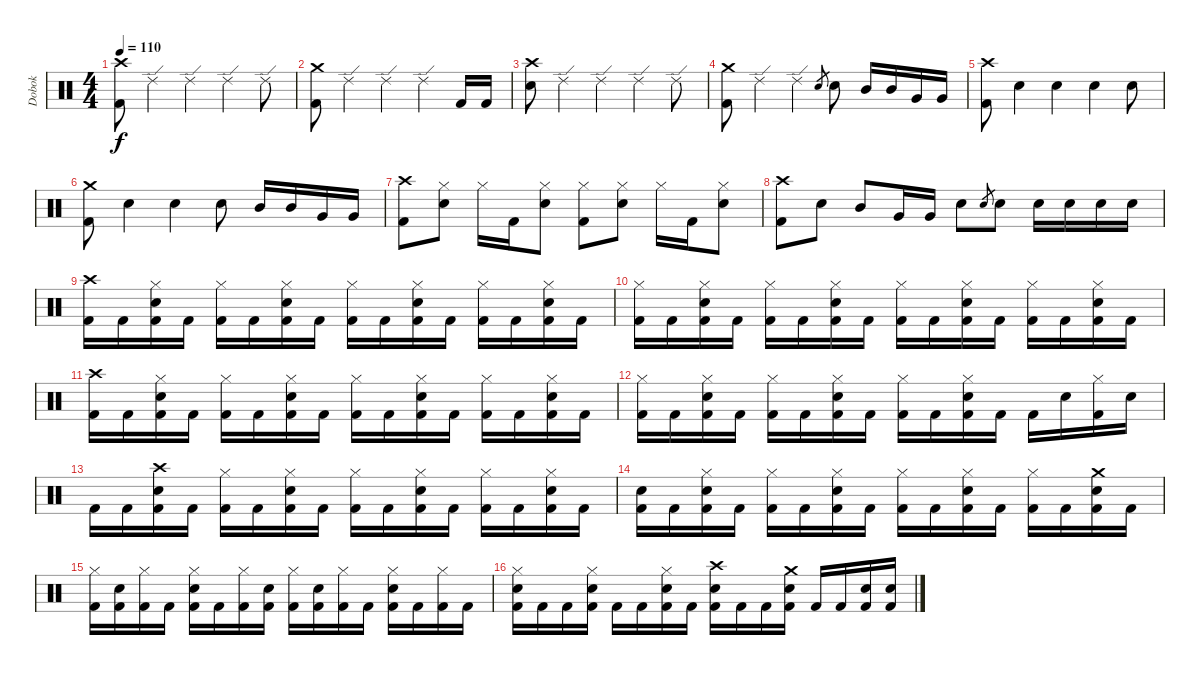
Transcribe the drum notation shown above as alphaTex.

\track ("Dobok" "Dobok") {instrument percussion}
\staff {score}
\articulation defaults
\ts (4 4)
\tempo 110
\clef neutral
\ks c
("Crash high (hit)" "Kick (hit) 2").8{dy f} "Ride (edge) 2".4 "Ride (edge) 2".4 "Ride (edge) 2".4 "Ride (edge) 2".8 |
("Crash medium (hit)" "Kick (hit) 2").8 "Ride (edge) 2".4 "Ride (edge) 2".4 "Ride (edge) 2".4 "Kick (hit) 2".16 "Kick (hit) 2".16 |
("Crash high (hit)" "Snare (hit) 2").8 "Ride (edge) 2".4 "Ride (edge) 2".4 "Ride (edge) 2".4 "Ride (edge) 2".8 |
("Crash medium (hit)" "Kick (hit) 2").8 "Ride (edge) 2".4 "Ride (edge) 2".4 "Snare (hit) 2".8{gr} "Snare (hit) 2".8 "Mid Tom (hit)".16 "Mid Tom (hit)".16 "Very Low Tom (hit)".16 "Very Low Tom (hit)".16 |
("Crash high (hit)" "Kick (hit) 2").8 "Snare (hit) 2".4 "Snare (hit) 2".4 "Snare (hit) 2".4 "Snare (hit) 2".8 |
("Crash medium (hit)" "Kick (hit) 2").8 "Snare (hit) 2".4 "Snare (hit) 2".4 "Snare (hit) 2".8 "Mid Tom (hit)".16 "Mid Tom (hit)".16 "Very Low Tom (hit)".16 "Very Low Tom (hit)".16 |
("Crash high (hit)" "Kick (hit) 2").8 ("Hi-Hat (closed)" "Snare (hit) 2").8 "Hi-Hat (closed)".16 "Kick (hit) 2".16 ("Hi-Hat (closed)" "Snare (hit) 2").8 ("Hi-Hat (closed)" "Kick (hit) 2").8 ("Hi-Hat (closed)" "Snare (hit) 2").8 "Hi-Hat (closed)".16 "Kick (hit) 2".16 ("Hi-Hat (closed)" "Snare (hit) 2").8 |
("Crash high (hit)" "Kick (hit) 2").8 "Snare (hit) 2".8 "Mid Tom (hit)".8 "Very Low Tom (hit)".16 "Very Low Tom (hit)".16 "Snare (hit) 2".8 "Snare (hit) 2".8{gr} "Snare (hit) 2".8 "Snare (hit) 2".16 "Snare (hit) 2".16 "Snare (hit) 2".16 "Snare (hit) 2".16 |
("Crash high (hit)" "Kick (hit) 2").16 "Kick (hit) 2".16 ("Hi-Hat (closed)" "Snare (hit) 2" "Kick (hit) 2").16 "Kick (hit) 2".16 ("Hi-Hat (closed)" "Kick (hit) 2").16 "Kick (hit) 2".16 ("Hi-Hat (closed)" "Snare (hit) 2" "Kick (hit) 2").16 "Kick (hit) 2".16 ("Hi-Hat (closed)" "Kick (hit) 2").16 "Kick (hit) 2".16 ("Hi-Hat (closed)" "Snare (hit) 2" "Kick (hit) 2").16 "Kick (hit) 2".16 ("Hi-Hat (closed)" "Kick (hit) 2").16 "Kick (hit) 2".16 ("Hi-Hat (closed)" "Snare (hit) 2" "Kick (hit) 2").16 "Kick (hit) 2".16 |
("Hi-Hat (closed)" "Kick (hit) 2").16 "Kick (hit) 2".16 ("Hi-Hat (closed)" "Snare (hit) 2" "Kick (hit) 2").16 "Kick (hit) 2".16 ("Hi-Hat (closed)" "Kick (hit) 2").16 "Kick (hit) 2".16 ("Hi-Hat (closed)" "Snare (hit) 2" "Kick (hit) 2").16 "Kick (hit) 2".16 ("Hi-Hat (closed)" "Kick (hit) 2").16 "Kick (hit) 2".16 ("Hi-Hat (closed)" "Snare (hit) 2" "Kick (hit) 2").16 "Kick (hit) 2".16 ("Hi-Hat (closed)" "Kick (hit) 2").16 "Kick (hit) 2".16 ("Hi-Hat (closed)" "Snare (hit) 2" "Kick (hit) 2").16 "Kick (hit) 2".16 |
("Crash high (hit)" "Kick (hit) 2").16 "Kick (hit) 2".16 ("Hi-Hat (closed)" "Snare (hit) 2" "Kick (hit) 2").16 "Kick (hit) 2".16 ("Hi-Hat (closed)" "Kick (hit) 2").16 "Kick (hit) 2".16 ("Hi-Hat (closed)" "Snare (hit) 2" "Kick (hit) 2").16 "Kick (hit) 2".16 ("Hi-Hat (closed)" "Kick (hit) 2").16 "Kick (hit) 2".16 ("Hi-Hat (closed)" "Snare (hit) 2" "Kick (hit) 2").16 "Kick (hit) 2".16 ("Hi-Hat (closed)" "Kick (hit) 2").16 "Kick (hit) 2".16 ("Hi-Hat (closed)" "Snare (hit) 2" "Kick (hit) 2").16 "Kick (hit) 2".16 |
("Hi-Hat (closed)" "Kick (hit) 2").16 "Kick (hit) 2".16 ("Hi-Hat (closed)" "Snare (hit) 2" "Kick (hit) 2").16 "Kick (hit) 2".16 ("Hi-Hat (closed)" "Kick (hit) 2").16 "Kick (hit) 2".16 ("Hi-Hat (closed)" "Snare (hit) 2" "Kick (hit) 2").16 "Kick (hit) 2".16 ("Hi-Hat (closed)" "Kick (hit) 2").16 "Kick (hit) 2".16 ("Hi-Hat (closed)" "Snare (hit) 2" "Kick (hit) 2").16 "Kick (hit) 2".16 "Kick (hit) 2".16 "Snare (hit) 2".16 ("Hi-Hat (closed)" "Kick (hit) 2").16 "Snare (hit) 2".16 |
"Kick (hit) 2".16 "Kick (hit) 2".16 ("Crash high (hit)" "Snare (hit) 2" "Kick (hit) 2").16 "Kick (hit) 2".16 ("Hi-Hat (closed)" "Kick (hit) 2").16 "Kick (hit) 2".16 ("Hi-Hat (closed)" "Snare (hit) 2" "Kick (hit) 2").16 "Kick (hit) 2".16 ("Hi-Hat (closed)" "Kick (hit) 2").16 "Kick (hit) 2".16 ("Hi-Hat (closed)" "Snare (hit) 2" "Kick (hit) 2").16 "Kick (hit) 2".16 ("Hi-Hat (closed)" "Kick (hit) 2").16 "Kick (hit) 2".16 ("Hi-Hat (closed)" "Snare (hit) 2" "Kick (hit) 2").16 "Kick (hit) 2".16 |
("Snare (hit)" "Kick (hit) 2").16 "Kick (hit) 2".16 ("Hi-Hat (closed)" "Snare (hit) 2" "Kick (hit) 2").16 "Kick (hit) 2".16 ("Hi-Hat (closed)" "Kick (hit) 2").16 "Kick (hit) 2".16 ("Hi-Hat (closed)" "Snare (hit) 2" "Kick (hit) 2").16 "Kick (hit) 2".16 ("Hi-Hat (closed)" "Kick (hit) 2").16 "Kick (hit) 2".16 ("Hi-Hat (closed)" "Snare (hit) 2" "Kick (hit) 2").16 "Kick (hit) 2".16 ("Hi-Hat (closed)" "Kick (hit) 2").16 "Kick (hit) 2".16 ("Crash medium (hit)" "Snare (hit) 2" "Kick (hit) 2").16 "Kick (hit) 2".16 |
("Hi-Hat (closed)" "Kick (hit) 2").16 ("Snare (hit) 2" "Kick (hit) 2").16 ("Hi-Hat (closed)" "Kick (hit) 2").16 "Kick (hit) 2".16 ("Hi-Hat (closed)" "Snare (hit) 2" "Kick (hit) 2").16 "Kick (hit) 2".16 ("Hi-Hat (closed)" "Kick (hit) 2").16 ("Snare (hit) 2" "Kick (hit) 2").16 ("Hi-Hat (closed)" "Kick (hit) 2").16 ("Snare (hit) 2" "Kick (hit) 2").16 ("Hi-Hat (closed)" "Kick (hit) 2").16 "Kick (hit) 2".16 ("Hi-Hat (closed)" "Snare (hit) 2" "Kick (hit) 2").16 "Kick (hit) 2".16 ("Hi-Hat (closed)" "Kick (hit) 2").16 "Kick (hit) 2".16 |
("Hi-Hat (closed)" "Snare (hit) 2" "Kick (hit) 2").16 "Kick (hit) 2".16 "Kick (hit) 2".16 ("Hi-Hat (closed)" "Snare (hit) 2" "Kick (hit) 2").16 "Kick (hit) 2".16 "Kick (hit) 2".16 ("Hi-Hat (closed)" "Snare (hit) 2" "Kick (hit) 2").16 "Kick (hit) 2".16 ("Crash high (hit)" "Snare (hit) 2" "Kick (hit) 2").16 "Kick (hit) 2".16 "Kick (hit) 2".16 ("Crash medium (hit)" "Snare (hit) 2" "Kick (hit) 2").16 "Kick (hit) 2".16 "Kick (hit) 2".16 ("Snare (hit) 2" "Kick (hit) 2").16 ("Snare (hit) 2" "Kick (hit) 2").16
